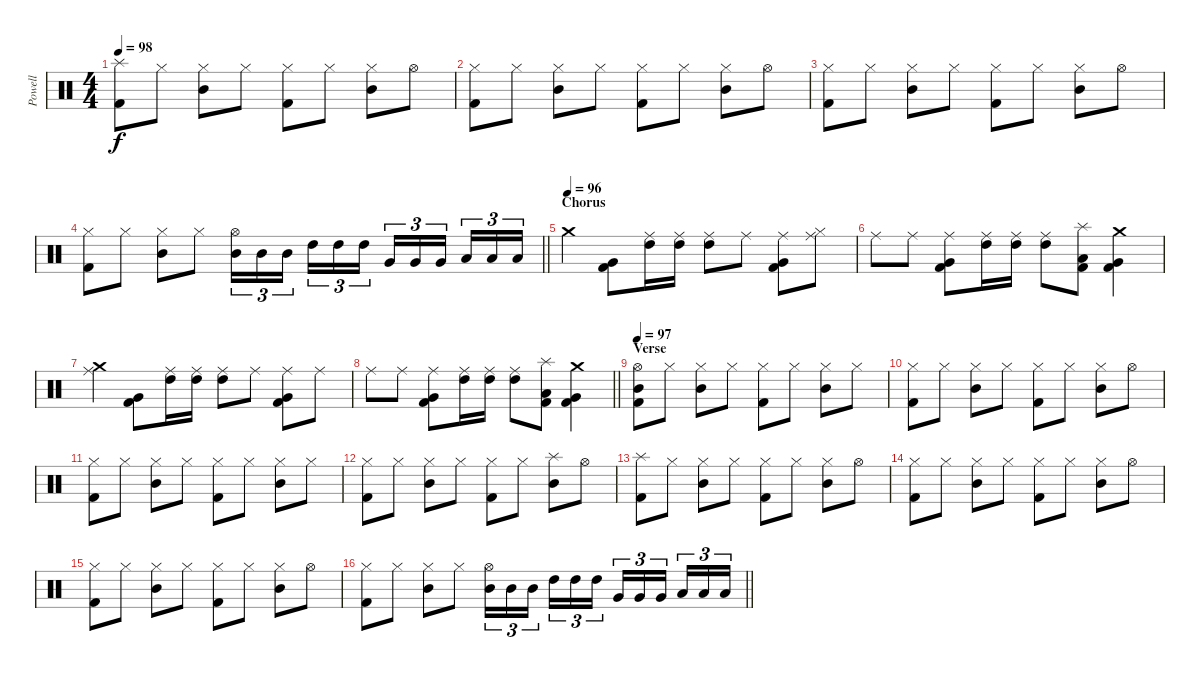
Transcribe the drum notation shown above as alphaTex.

\track ("Powell" "Powell") {instrument percussion}
\staff {score}
\articulation defaults
\ts (4 4)
\tempo 98
\clef neutral
\ks c
("Splash (hit)" "Kick (hit) 2").8{dy f} "Hi-Hat (closed)".8 ("Hi-Hat (closed)" "Mid Tom (hit)").8 "Hi-Hat (closed)".8 ("Hi-Hat (closed)" "Kick (hit) 2").8 "Hi-Hat (closed)".8 ("Hi-Hat (closed)" "Mid Tom (hit)").8 "Hi-Hat (open)".8 |
("Hi-Hat (closed)" "Kick (hit) 2").8 "Hi-Hat (closed)".8 ("Hi-Hat (closed)" "Mid Tom (hit)").8 "Hi-Hat (closed)".8 ("Hi-Hat (closed)" "Kick (hit) 2").8 "Hi-Hat (closed)".8 ("Hi-Hat (closed)" "Mid Tom (hit)").8 "Hi-Hat (open)".8 |
("Hi-Hat (closed)" "Kick (hit) 2").8 "Hi-Hat (closed)".8 ("Hi-Hat (closed)" "Mid Tom (hit)").8 "Hi-Hat (closed)".8 ("Hi-Hat (closed)" "Kick (hit) 2").8 "Hi-Hat (closed)".8 ("Hi-Hat (closed)" "Mid Tom (hit)").8 "Hi-Hat (open)".8 |
\barLineRight lightlight
("Hi-Hat (closed)" "Kick (hit) 2").8 "Hi-Hat (closed)".8 ("Hi-Hat (closed)" "Mid Tom (hit)").8 "Hi-Hat (closed)".8 ("Hi-Hat (open)" "Mid Tom (hit)").16{tu (3 2)} "Mid Tom (hit)".16{tu (3 2)} "Mid Tom (hit)".16{tu (3 2) beam splitsecondary} "High Tom (hit)".16{tu (3 2)} "High Tom (hit)".16{tu (3 2)} "High Tom (hit)".16{tu (3 2)} "Very Low Tom (hit)".16{tu (3 2)} "Very Low Tom (hit)".16{tu (3 2)} "Very Low Tom (hit)".16{tu (3 2) beam splitsecondary} "Low Tom (hit)".16{tu (3 2)} "Low Tom (hit)".16{tu (3 2)} "Low Tom (hit)".16{tu (3 2)} |
\section ("" "Chorus")
\tempo (96)
"Crash medium (hit)".4 ("Very Low Tom (hit)" "Kick (hit) 2").8 ("Ride (middle)" "High Tom (hit)").16 ("Ride (middle)" "High Tom (hit)").16 ("Ride (middle)" "High Tom (hit)").8 "Ride (middle)".8 ("Ride (middle)" "Very Low Tom (hit)" "Kick (hit) 2").8 ("Ride (middle)" "Hi-Hat (closed)").8 |
"Ride (middle)".8 "Ride (middle)".8 ("Ride (middle)" "Very Low Tom (hit)" "Kick (hit) 2").8 ("Ride (middle)" "High Tom (hit)").16 ("Ride (middle)" "High Tom (hit)").16 ("Ride (middle)" "High Tom (hit)").8 ("Splash (hit)" "Low Tom (hit)" "Kick (hit) 2").8 ("Crash medium (hit)" "Very Low Tom (hit)" "Kick (hit) 2").4 |
("Crash medium (hit)" "Ride (middle)").4 ("Very Low Tom (hit)" "Kick (hit) 2").8 ("Ride (middle)" "High Tom (hit)").16 ("Ride (middle)" "High Tom (hit)").16 ("Ride (middle)" "High Tom (hit)").8 "Ride (middle)".8 ("Ride (middle)" "Very Low Tom (hit)" "Kick (hit) 2").8 "Ride (middle)".8 |
\barLineRight lightlight "Ride (middle)".8 "Ride (middle)".8
("Ride (middle)" "Very Low Tom (hit)" "Kick (hit) 2").8 ("Ride (middle)" "High Tom (hit)").16 ("Ride (middle)" "High Tom (hit)").16 ("Ride (middle)" "High Tom (hit)").8 ("Splash (hit)" "Low Tom (hit)" "Kick (hit) 2").8 ("Crash medium (hit)" "Very Low Tom (hit)" "Kick (hit) 2").4 |
\section ("" "Verse")
\tempo 97
("Hi-Hat (open)" "Mid Tom (hit)" "Kick (hit) 2").8 "Hi-Hat (closed)".8 ("Hi-Hat (closed)" "Mid Tom (hit)").8 "Hi-Hat (closed)".8 ("Hi-Hat (closed)" "Kick (hit) 2").8 "Hi-Hat (closed)".8 ("Hi-Hat (closed)" "Mid Tom (hit)").8 "Hi-Hat (closed)".8 |
("Hi-Hat (closed)" "Kick (hit) 2").8 "Hi-Hat (closed)".8 ("Hi-Hat (closed)" "Mid Tom (hit)").8 "Hi-Hat (closed)".8 ("Hi-Hat (closed)" "Kick (hit) 2").8 "Hi-Hat (closed)".8 ("Hi-Hat (closed)" "Mid Tom (hit)").8 "Hi-Hat (open)".8 |
("Hi-Hat (closed)" "Kick (hit) 2").8 "Hi-Hat (closed)".8 ("Hi-Hat (closed)" "Mid Tom (hit)").8 "Hi-Hat (closed)".8 ("Hi-Hat (closed)" "Kick (hit) 2").8 "Hi-Hat (closed)".8 ("Hi-Hat (closed)" "Mid Tom (hit)").8 "Hi-Hat (closed)".8 |
("Hi-Hat (closed)" "Kick (hit) 2").8 "Hi-Hat (closed)".8 ("Hi-Hat (closed)" "Mid Tom (hit)").8 "Hi-Hat (closed)".8 ("Hi-Hat (closed)" "Kick (hit) 2").8 "Hi-Hat (closed)".8 ("Splash (hit)" "Mid Tom (hit)").8 "Hi-Hat (open)".8 |
("Splash (hit)" "Kick (hit) 2").8 "Hi-Hat (closed)".8 ("Hi-Hat (closed)" "Mid Tom (hit)").8 "Hi-Hat (closed)".8 ("Hi-Hat (closed)" "Kick (hit) 2").8 "Hi-Hat (closed)".8 ("Hi-Hat (closed)" "Mid Tom (hit)").8 "Hi-Hat (open)".8 |
("Hi-Hat (closed)" "Kick (hit) 2").8 "Hi-Hat (closed)".8 ("Hi-Hat (closed)" "Mid Tom (hit)").8 "Hi-Hat (closed)".8 ("Hi-Hat (closed)" "Kick (hit) 2").8 "Hi-Hat (closed)".8 ("Hi-Hat (closed)" "Mid Tom (hit)").8 "Hi-Hat (open)".8 |
("Hi-Hat (closed)" "Kick (hit) 2").8 "Hi-Hat (closed)".8 ("Hi-Hat (closed)" "Mid Tom (hit)").8 "Hi-Hat (closed)".8 ("Hi-Hat (closed)" "Kick (hit) 2").8 "Hi-Hat (closed)".8 ("Hi-Hat (closed)" "Mid Tom (hit)").8 "Hi-Hat (open)".8 |
\barLineRight lightlight
("Hi-Hat (closed)" "Kick (hit) 2").8 "Hi-Hat (closed)".8 ("Hi-Hat (closed)" "Mid Tom (hit)").8 "Hi-Hat (closed)".8 ("Hi-Hat (open)" "Mid Tom (hit)").16{tu (3 2)} "Mid Tom (hit)".16{tu (3 2)} "Mid Tom (hit)".16{tu (3 2) beam splitsecondary} "High Tom (hit)".16{tu (3 2)} "High Tom (hit)".16{tu (3 2)} "High Tom (hit)".16{tu (3 2)} "Very Low Tom (hit)".16{tu (3 2)} "Very Low Tom (hit)".16{tu (3 2)} "Very Low Tom (hit)".16{tu (3 2) beam splitsecondary} "Low Tom (hit)".16{tu (3 2)} "Low Tom (hit)".16{tu (3 2)} "Low Tom (hit)".16{tu (3 2)}
